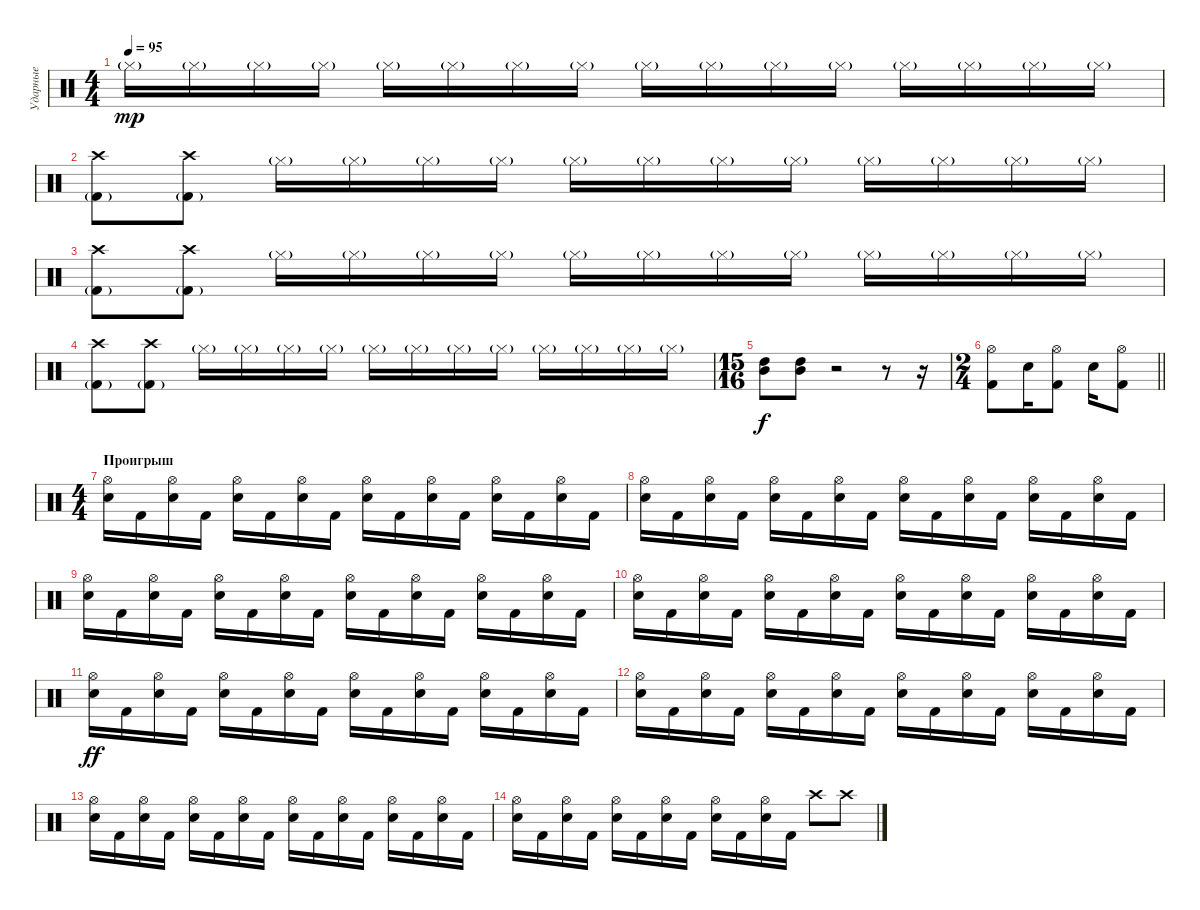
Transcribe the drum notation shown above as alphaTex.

\track ("Ударные" "Ударные") {instrument percussion}
\staff {score}
\articulation defaults
\ts (4 4)
\tempo 95
\clef neutral
\ks c "Hi-Hat (closed)"{g}.16{dy mp} "Hi-Hat (closed)"{g}.16 "Hi-Hat (closed)"{g}.16 "Hi-Hat (closed)"{g}.16 "Hi-Hat (closed)"{g}.16 "Hi-Hat (closed)"{g}.16 "Hi-Hat (closed)"{g}.16 "Hi-Hat (closed)"{g}.16 "Hi-Hat (closed)"{g}.16 "Hi-Hat (closed)"{g}.16 "Hi-Hat (closed)"{g}.16 "Hi-Hat (closed)"{g}.16 "Hi-Hat (closed)"{g}.16 "Hi-Hat (closed)"{g}.16 "Hi-Hat (closed)"{g}.16 "Hi-Hat (closed)"{g}.16
|
("Kick (hit) 2"{g} "Crash high (hit)").8 ("Kick (hit) 2"{g} "Crash high (hit)").8 "Hi-Hat (closed)"{g}.16 "Hi-Hat (closed)"{g}.16 "Hi-Hat (closed)"{g}.16 "Hi-Hat (closed)"{g}.16 "Hi-Hat (closed)"{g}.16 "Hi-Hat (closed)"{g}.16 "Hi-Hat (closed)"{g}.16 "Hi-Hat (closed)"{g}.16 "Hi-Hat (closed)"{g}.16 "Hi-Hat (closed)"{g}.16 "Hi-Hat (closed)"{g}.16 "Hi-Hat (closed)"{g}.16 |
("Kick (hit) 2"{g} "Crash high (hit)").8 ("Kick (hit) 2"{g} "Crash high (hit)").8 "Hi-Hat (closed)"{g}.16 "Hi-Hat (closed)"{g}.16 "Hi-Hat (closed)"{g}.16 "Hi-Hat (closed)"{g}.16 "Hi-Hat (closed)"{g}.16 "Hi-Hat (closed)"{g}.16 "Hi-Hat (closed)"{g}.16 "Hi-Hat (closed)"{g}.16 "Hi-Hat (closed)"{g}.16 "Hi-Hat (closed)"{g}.16 "Hi-Hat (closed)"{g}.16 "Hi-Hat (closed)"{g}.16 |
("Kick (hit) 2"{g} "Crash high (hit)").8 ("Kick (hit) 2"{g} "Crash high (hit)").8 "Hi-Hat (closed)"{g}.16 "Hi-Hat (closed)"{g}.16 "Hi-Hat (closed)"{g}.16 "Hi-Hat (closed)"{g}.16 "Hi-Hat (closed)"{g}.16 "Hi-Hat (closed)"{g}.16 "Hi-Hat (closed)"{g}.16 "Hi-Hat (closed)"{g}.16 "Hi-Hat (closed)"{g}.16 "Hi-Hat (closed)"{g}.16 "Hi-Hat (closed)"{g}.16 "Hi-Hat (closed)"{g}.16 |
\ts (15 16)
("Mid Tom (hit)" "High Tom (hit)").8{dy f} ("Mid Tom (hit)" "High Tom (hit)").8 r.2 r.8 r.16 |
\ts (2 4)
\barLineRight lightlight
("Kick (hit) 2" "Hi-Hat (open)").8 "Electric Snare (hit)".16 ("Hi-Hat (open)" "Kick (hit) 2").8 "Electric Snare (hit)".16 ("Hi-Hat (open)" "Kick (hit) 2").8 |
\ts (4 4)
\section ("" "Проигрыш")
("Electric Snare (hit)" "Hi-Hat (open)").16 "Kick (hit) 2".16 ("Electric Snare (hit)" "Hi-Hat (open)").16 "Kick (hit) 2".16 ("Electric Snare (hit)" "Hi-Hat (open)").16 "Kick (hit) 2".16 ("Electric Snare (hit)" "Hi-Hat (open)").16 "Kick (hit) 2".16 ("Electric Snare (hit)" "Hi-Hat (open)").16 "Kick (hit) 2".16 ("Electric Snare (hit)" "Hi-Hat (open)").16 "Kick (hit) 2".16 ("Electric Snare (hit)" "Hi-Hat (open)").16 "Kick (hit) 2".16 ("Electric Snare (hit)" "Hi-Hat (open)").16 "Kick (hit) 2".16 |
("Electric Snare (hit)" "Hi-Hat (open)").16 "Kick (hit) 2".16 ("Electric Snare (hit)" "Hi-Hat (open)").16 "Kick (hit) 2".16 ("Electric Snare (hit)" "Hi-Hat (open)").16 "Kick (hit) 2".16 ("Electric Snare (hit)" "Hi-Hat (open)").16 "Kick (hit) 2".16 ("Electric Snare (hit)" "Hi-Hat (open)").16 "Kick (hit) 2".16 ("Electric Snare (hit)" "Hi-Hat (open)").16 "Kick (hit) 2".16 ("Electric Snare (hit)" "Hi-Hat (open)").16 "Kick (hit) 2".16 ("Electric Snare (hit)" "Hi-Hat (open)").16 "Kick (hit) 2".16 |
("Electric Snare (hit)" "Hi-Hat (open)").16 "Kick (hit) 2".16 ("Electric Snare (hit)" "Hi-Hat (open)").16 "Kick (hit) 2".16 ("Electric Snare (hit)" "Hi-Hat (open)").16 "Kick (hit) 2".16 ("Electric Snare (hit)" "Hi-Hat (open)").16 "Kick (hit) 2".16 ("Electric Snare (hit)" "Hi-Hat (open)").16 "Kick (hit) 2".16 ("Electric Snare (hit)" "Hi-Hat (open)").16 "Kick (hit) 2".16 ("Electric Snare (hit)" "Hi-Hat (open)").16 "Kick (hit) 2".16 ("Electric Snare (hit)" "Hi-Hat (open)").16 "Kick (hit) 2".16 |
("Electric Snare (hit)" "Hi-Hat (open)").16 "Kick (hit) 2".16 ("Electric Snare (hit)" "Hi-Hat (open)").16 "Kick (hit) 2".16 ("Electric Snare (hit)" "Hi-Hat (open)").16 "Kick (hit) 2".16 ("Electric Snare (hit)" "Hi-Hat (open)").16 "Kick (hit) 2".16 ("Electric Snare (hit)" "Hi-Hat (open)").16 "Kick (hit) 2".16 ("Electric Snare (hit)" "Hi-Hat (open)").16 "Kick (hit) 2".16 ("Electric Snare (hit)" "Hi-Hat (open)").16 "Kick (hit) 2".16 ("Electric Snare (hit)" "Hi-Hat (open)").16 "Kick (hit) 2".16 |
("Electric Snare (hit)" "Hi-Hat (open)").16{dy ff} "Kick (hit) 2".16 ("Electric Snare (hit)" "Hi-Hat (open)").16 "Kick (hit) 2".16 ("Electric Snare (hit)" "Hi-Hat (open)").16 "Kick (hit) 2".16 ("Electric Snare (hit)" "Hi-Hat (open)").16 "Kick (hit) 2".16 ("Electric Snare (hit)" "Hi-Hat (open)").16 "Kick (hit) 2".16 ("Electric Snare (hit)" "Hi-Hat (open)").16 "Kick (hit) 2".16 ("Electric Snare (hit)" "Hi-Hat (open)").16 "Kick (hit) 2".16 ("Electric Snare (hit)" "Hi-Hat (open)").16 "Kick (hit) 2".16 |
("Electric Snare (hit)" "Hi-Hat (open)").16 "Kick (hit) 2".16 ("Electric Snare (hit)" "Hi-Hat (open)").16 "Kick (hit) 2".16 ("Electric Snare (hit)" "Hi-Hat (open)").16 "Kick (hit) 2".16 ("Electric Snare (hit)" "Hi-Hat (open)").16 "Kick (hit) 2".16 ("Electric Snare (hit)" "Hi-Hat (open)").16 "Kick (hit) 2".16 ("Electric Snare (hit)" "Hi-Hat (open)").16 "Kick (hit) 2".16 ("Electric Snare (hit)" "Hi-Hat (open)").16 "Kick (hit) 2".16 ("Electric Snare (hit)" "Hi-Hat (open)").16 "Kick (hit) 2".16 |
("Electric Snare (hit)" "Hi-Hat (open)").16 "Kick (hit) 2".16 ("Electric Snare (hit)" "Hi-Hat (open)").16 "Kick (hit) 2".16 ("Electric Snare (hit)" "Hi-Hat (open)").16 "Kick (hit) 2".16 ("Electric Snare (hit)" "Hi-Hat (open)").16 "Kick (hit) 2".16 ("Electric Snare (hit)" "Hi-Hat (open)").16 "Kick (hit) 2".16 ("Electric Snare (hit)" "Hi-Hat (open)").16 "Kick (hit) 2".16 ("Electric Snare (hit)" "Hi-Hat (open)").16 "Kick (hit) 2".16 ("Electric Snare (hit)" "Hi-Hat (open)").16 "Kick (hit) 2".16 |
("Electric Snare (hit)" "Hi-Hat (open)").16 "Kick (hit) 2".16 ("Electric Snare (hit)" "Hi-Hat (open)").16 "Kick (hit) 2".16 ("Electric Snare (hit)" "Hi-Hat (open)").16 "Kick (hit) 2".16 ("Electric Snare (hit)" "Hi-Hat (open)").16 "Kick (hit) 2".16 ("Electric Snare (hit)" "Hi-Hat (open)").16 "Kick (hit) 2".16 ("Electric Snare (hit)" "Hi-Hat (open)").16 "Kick (hit) 2".16 "Crash high (hit)".8 "Crash high (hit)".8
